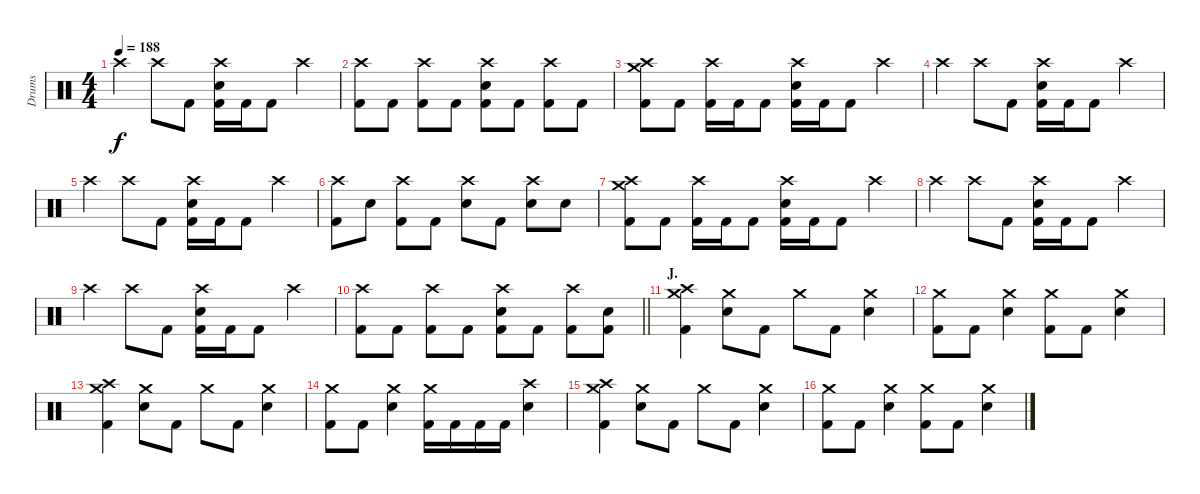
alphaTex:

\track ("Drums" "Drums") {instrument percussion}
\staff {score}
\articulation defaults
\ts (4 4)
\tempo 188
\clef neutral
\ks c "Crash high (hit)".4{dy f} "Crash high (hit)".8 "Kick (hit) 2".8
("Crash high (hit)" "Electric Snare (hit)" "Kick (hit) 2").16 "Kick (hit) 2".16 "Kick (hit) 2".8 "Crash high (hit)".4 |
("Crash high (hit)" "Kick (hit) 2").8 "Kick (hit) 2".8 ("Crash high (hit)" "Kick (hit) 2").8 "Kick (hit) 2".8 ("Crash high (hit)" "Electric Snare (hit)" "Kick (hit) 2").8 "Kick (hit) 2".8 ("Crash high (hit)" "Kick (hit) 2").8 "Kick (hit) 2".8 |
("Crash medium (hit)" "Crash high (hit)" "Kick (hit) 2").8 "Kick (hit) 2".8 ("Crash high (hit)" "Kick (hit) 2").16 "Kick (hit) 2".16 "Kick (hit) 2".8 ("Crash high (hit)" "Electric Snare (hit)" "Kick (hit) 2").16 "Kick (hit) 2".16 "Kick (hit) 2".8 "Crash high (hit)".4 |
"Crash high (hit)".4 "Crash high (hit)".8 "Kick (hit) 2".8 ("Crash high (hit)" "Electric Snare (hit)" "Kick (hit) 2").16 "Kick (hit) 2".16 "Kick (hit) 2".8 "Crash high (hit)".4 |
"Crash high (hit)".4 "Crash high (hit)".8 "Kick (hit) 2".8 ("Crash high (hit)" "Electric Snare (hit)" "Kick (hit) 2").16 "Kick (hit) 2".16 "Kick (hit) 2".8 "Crash high (hit)".4 |
("Crash high (hit)" "Kick (hit) 2").8 "Electric Snare (hit)".8 ("Crash high (hit)" "Kick (hit) 2").8 "Kick (hit) 2".8 ("Crash high (hit)" "Electric Snare (hit)").8 "Kick (hit) 2".8 ("Crash high (hit)" "Electric Snare (hit)").8 "Electric Snare (hit)".8 |
("Crash medium (hit)" "Crash high (hit)" "Kick (hit) 2").8 "Kick (hit) 2".8 ("Crash high (hit)" "Kick (hit) 2").16 "Kick (hit) 2".16 "Kick (hit) 2".8 ("Crash high (hit)" "Electric Snare (hit)" "Kick (hit) 2").16 "Kick (hit) 2".16 "Kick (hit) 2".8 "Crash high (hit)".4 |
"Crash high (hit)".4 "Crash high (hit)".8 "Kick (hit) 2".8 ("Crash high (hit)" "Electric Snare (hit)" "Kick (hit) 2").16 "Kick (hit) 2".16 "Kick (hit) 2".8 "Crash high (hit)".4 |
"Crash high (hit)".4 "Crash high (hit)".8 "Kick (hit) 2".8 ("Crash high (hit)" "Electric Snare (hit)" "Kick (hit) 2").16 "Kick (hit) 2".16 "Kick (hit) 2".8 "Crash high (hit)".4 |
\barLineRight lightlight
("Crash high (hit)" "Kick (hit) 2").8 "Kick (hit) 2".8 ("Crash high (hit)" "Kick (hit) 2").8 "Kick (hit) 2".8 ("Crash high (hit)" "Electric Snare (hit)" "Kick (hit) 2").8 "Kick (hit) 2".8 ("Crash high (hit)" "Kick (hit) 2").8 ("Electric Snare (hit)" "Kick (hit) 2").8 |
\section ("" "J.")
("Crash medium (hit)" "Crash high (hit)" "Kick (hit) 2").4 ("Crash medium (hit)" "Electric Snare (hit)").8 "Kick (hit) 2".8 "Crash medium (hit)".8 "Kick (hit) 2".8 ("Crash medium (hit)" "Electric Snare (hit)").4 |
("Crash medium (hit)" "Kick (hit) 2").8 "Kick (hit) 2".8 ("Crash medium (hit)" "Electric Snare (hit)").4 ("Crash medium (hit)" "Kick (hit) 2").8 "Kick (hit) 2".8 ("Crash medium (hit)" "Electric Snare (hit)").4 |
("Crash medium (hit)" "Crash high (hit)" "Kick (hit) 2").4 ("Crash medium (hit)" "Electric Snare (hit)").8 "Kick (hit) 2".8 "Crash medium (hit)".8 "Kick (hit) 2".8 ("Crash medium (hit)" "Electric Snare (hit)").4 |
("Crash medium (hit)" "Kick (hit) 2").8 "Kick (hit) 2".8 ("Crash medium (hit)" "Electric Snare (hit)").4 ("Crash medium (hit)" "Kick (hit) 2").16 "Kick (hit) 2".16 "Kick (hit) 2".16 "Kick (hit) 2".16 ("Crash high (hit)" "Electric Snare (hit)").4 |
("Crash medium (hit)" "Crash high (hit)" "Kick (hit) 2").4 ("Crash medium (hit)" "Electric Snare (hit)").8 "Kick (hit) 2".8 "Crash medium (hit)".8 "Kick (hit) 2".8 ("Crash medium (hit)" "Electric Snare (hit)").4 |
("Crash medium (hit)" "Kick (hit) 2").8 "Kick (hit) 2".8 ("Crash medium (hit)" "Electric Snare (hit)").4 ("Crash medium (hit)" "Kick (hit) 2").8 "Kick (hit) 2".8 ("Crash medium (hit)" "Electric Snare (hit)").4
